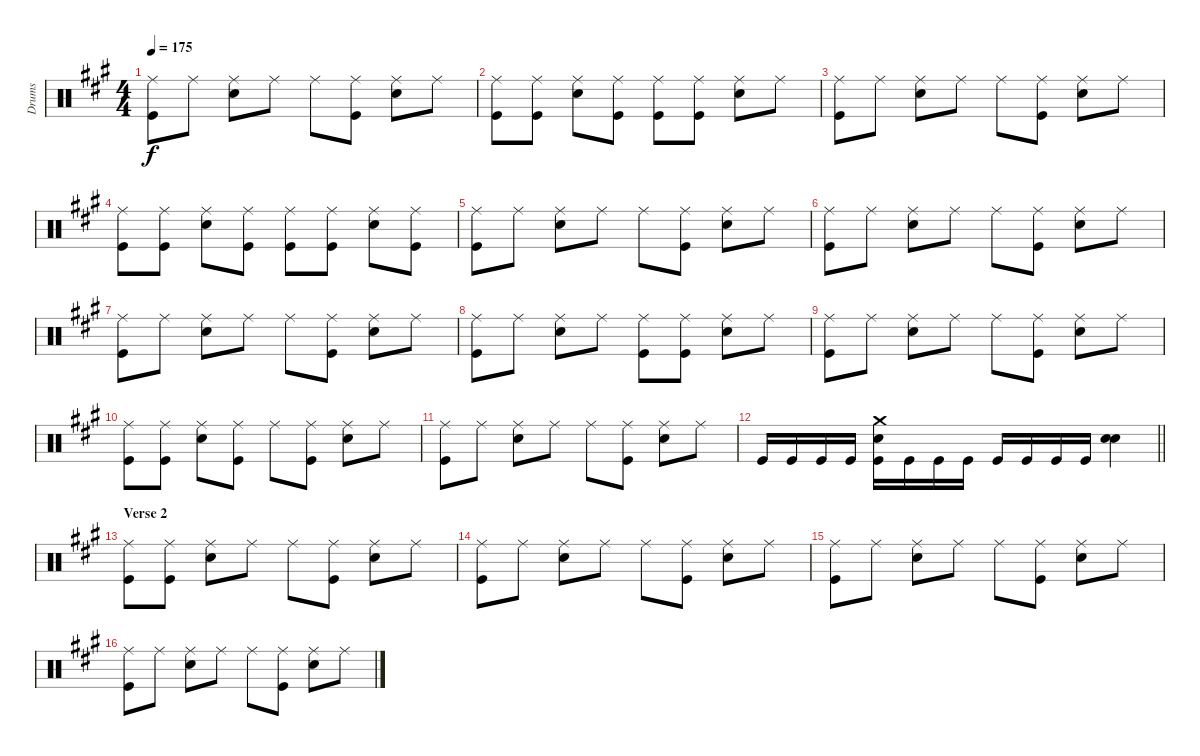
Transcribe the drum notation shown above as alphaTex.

\track ("Drums" "Drums") {instrument percussion}
\staff {score}
\articulation defaults
\ts (4 4)
\tempo 175
\clef neutral
\ks f#minor
("Ride (middle)" "Kick (hit)").8{dy f} "Ride (middle)".8 ("Ride (middle)" "Snare (hit) 2").8 "Ride (middle)".8 "Ride (middle)".8 ("Ride (middle)" "Kick (hit)").8 ("Ride (middle)" "Snare (hit) 2").8 "Ride (middle)".8 |
("Ride (middle)" "Kick (hit)").8 ("Ride (middle)" "Kick (hit)").8 ("Ride (middle)" "Snare (hit) 2").8 ("Ride (middle)" "Kick (hit)").8 ("Ride (middle)" "Kick (hit)").8 ("Ride (middle)" "Kick (hit)").8 ("Ride (middle)" "Snare (hit) 2").8 "Ride (middle)".8 |
("Ride (middle)" "Kick (hit)").8 "Ride (middle)".8 ("Ride (middle)" "Snare (hit) 2").8 "Ride (middle)".8 "Ride (middle)".8 ("Ride (middle)" "Kick (hit)").8 ("Ride (middle)" "Snare (hit) 2").8 "Ride (middle)".8 |
("Ride (middle)" "Kick (hit)").8 ("Ride (middle)" "Kick (hit)").8 ("Ride (middle)" "Snare (hit) 2").8 ("Ride (middle)" "Kick (hit)").8 ("Ride (middle)" "Kick (hit)").8 ("Ride (middle)" "Kick (hit)").8 ("Ride (middle)" "Snare (hit) 2").8 ("Ride (middle)" "Kick (hit)").8 |
("Ride (middle)" "Kick (hit)").8 "Ride (middle)".8 ("Ride (middle)" "Snare (hit) 2").8 "Ride (middle)".8 "Ride (middle)".8 ("Ride (middle)" "Kick (hit)").8 ("Ride (middle)" "Snare (hit) 2").8 "Ride (middle)".8 |
("Ride (middle)" "Kick (hit)").8 "Ride (middle)".8 ("Ride (middle)" "Snare (hit) 2").8 "Ride (middle)".8 "Ride (middle)".8 ("Ride (middle)" "Kick (hit)").8 ("Ride (middle)" "Snare (hit) 2").8 "Ride (middle)".8 |
("Ride (middle)" "Kick (hit)").8 "Ride (middle)".8 ("Ride (middle)" "Snare (hit) 2").8 "Ride (middle)".8 "Ride (middle)".8 ("Ride (middle)" "Kick (hit)").8 ("Ride (middle)" "Snare (hit) 2").8 "Ride (middle)".8 |
("Ride (middle)" "Kick (hit)").8 "Ride (middle)".8 ("Ride (middle)" "Snare (hit) 2").8 "Ride (middle)".8 ("Ride (middle)" "Kick (hit)").8 ("Ride (middle)" "Kick (hit)").8 ("Ride (middle)" "Snare (hit) 2").8 "Ride (middle)".8 |
("Ride (middle)" "Kick (hit)").8 "Ride (middle)".8 ("Ride (middle)" "Snare (hit) 2").8 "Ride (middle)".8 "Ride (middle)".8 ("Ride (middle)" "Kick (hit)").8 ("Ride (middle)" "Snare (hit) 2").8 "Ride (middle)".8 |
("Ride (middle)" "Kick (hit)").8 ("Ride (middle)" "Kick (hit)").8 ("Ride (middle)" "Snare (hit) 2").8 ("Ride (middle)" "Kick (hit)").8 "Ride (middle)".8 ("Ride (middle)" "Kick (hit)").8 ("Ride (middle)" "Snare (hit) 2").8 "Ride (middle)".8 |
("Ride (middle)" "Kick (hit)").8 "Ride (middle)".8 ("Ride (middle)" "Snare (hit) 2").8 "Ride (middle)".8 "Ride (middle)".8 ("Ride (middle)" "Kick (hit)").8 ("Ride (middle)" "Snare (hit) 2").8 "Ride (middle)".8 |
\barLineRight lightlight "Kick (hit)".16 "Kick (hit)".16 "Kick (hit)".16 "Kick (hit)".16
("Crash medium (hit)" "Snare (hit) 2" "Kick (hit)").16 "Kick (hit)".16 "Kick (hit)".16 "Kick (hit)".16 "Kick (hit)".16 "Kick (hit)".16 "Kick (hit)".16 "Kick (hit)".16 ("Snare (hit) 2" "Snare (hit) 2").4 |
\section ("" "Verse 2")
("Ride (middle)" "Kick (hit)").8 ("Ride (middle)" "Kick (hit)").8 ("Ride (middle)" "Snare (hit) 2").8 "Ride (middle)".8 "Ride (middle)".8 ("Ride (middle)" "Kick (hit)").8 ("Ride (middle)" "Snare (hit) 2").8 "Ride (middle)".8 |
("Ride (middle)" "Kick (hit)").8 "Ride (middle)".8 ("Ride (middle)" "Snare (hit) 2").8 "Ride (middle)".8 "Ride (middle)".8 ("Ride (middle)" "Kick (hit)").8 ("Ride (middle)" "Snare (hit) 2").8 "Ride (middle)".8 |
("Ride (middle)" "Kick (hit)").8 "Ride (middle)".8 ("Ride (middle)" "Snare (hit) 2").8 "Ride (middle)".8 "Ride (middle)".8 ("Ride (middle)" "Kick (hit)").8 ("Ride (middle)" "Snare (hit) 2").8 "Ride (middle)".8 |
("Ride (middle)" "Kick (hit)").8 "Ride (middle)".8 ("Ride (middle)" "Snare (hit) 2").8 "Ride (middle)".8 "Ride (middle)".8 ("Ride (middle)" "Kick (hit)").8 ("Ride (middle)" "Snare (hit) 2").8 "Ride (middle)".8
